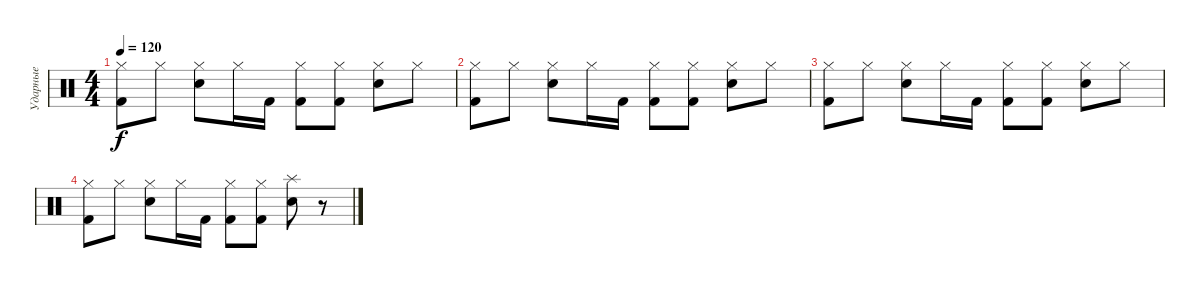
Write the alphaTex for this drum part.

\track ("Ударные" "Ударные") {instrument percussion}
\staff {score}
\articulation defaults
\ts (4 4)
\tempo 120
\clef neutral
\ks c
("Hi-Hat (closed)" "Kick (hit) 2").8{dy f} "Hi-Hat (closed)".8 ("Hi-Hat (closed)" "Snare (hit) 2").8 "Hi-Hat (closed)".16 "Kick (hit) 2".16 ("Hi-Hat (closed)" "Kick (hit) 2").8 ("Hi-Hat (closed)" "Kick (hit) 2").8 ("Hi-Hat (closed)" "Snare (hit) 2").8 "Hi-Hat (closed)".8 |
("Hi-Hat (closed)" "Kick (hit) 2").8 "Hi-Hat (closed)".8 ("Hi-Hat (closed)" "Snare (hit) 2").8 "Hi-Hat (closed)".16 "Kick (hit) 2".16 ("Hi-Hat (closed)" "Kick (hit) 2").8 ("Hi-Hat (closed)" "Kick (hit) 2").8 ("Hi-Hat (closed)" "Snare (hit) 2").8 "Hi-Hat (closed)".8 |
("Hi-Hat (closed)" "Kick (hit) 2").8 "Hi-Hat (closed)".8 ("Hi-Hat (closed)" "Snare (hit) 2").8 "Hi-Hat (closed)".16 "Kick (hit) 2".16 ("Hi-Hat (closed)" "Kick (hit) 2").8 ("Hi-Hat (closed)" "Kick (hit) 2").8 ("Hi-Hat (closed)" "Snare (hit) 2").8 "Hi-Hat (closed)".8 |
("Hi-Hat (closed)" "Kick (hit) 2").8 "Hi-Hat (closed)".8 ("Hi-Hat (closed)" "Snare (hit) 2").8 "Hi-Hat (closed)".16 "Kick (hit) 2".16 ("Hi-Hat (closed)" "Kick (hit) 2").8 ("Hi-Hat (closed)" "Kick (hit) 2").8 ("Splash (hit)" "Snare (hit) 2").8 r.8
